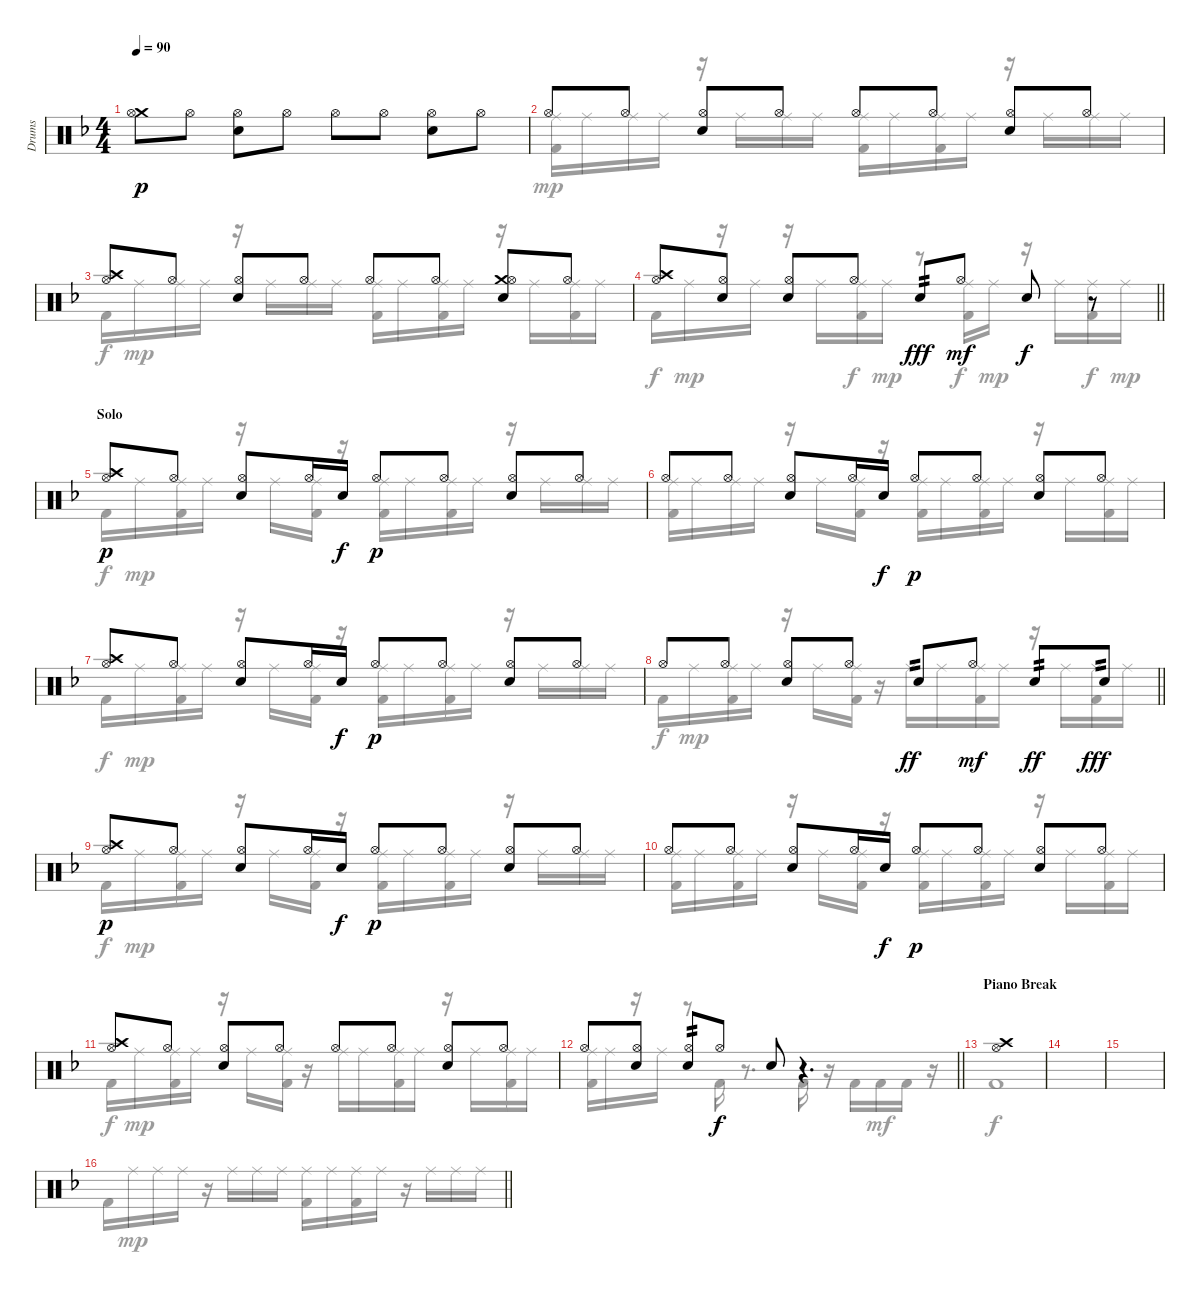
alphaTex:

\track ("Drums" "Drums") {instrument percussion}
\staff {score}
\articulation defaults
\voice
\ts (4 4)
\tempo 90
\clef neutral
\ks dminor
("Crash medium (hit)" "Hi-Hat (open)").8{dy p} "Hi-Hat (open)".8 ("Electric Snare (hit)" "Hi-Hat (open)").8 "Hi-Hat (open)".8 "Hi-Hat (open)".8 "Hi-Hat (open)".8 ("Electric Snare (hit)" "Hi-Hat (open)").8 "Hi-Hat (open)".8 |
"Hi-Hat (open)".8 "Hi-Hat (open)".8 ("Electric Snare (hit)" "Hi-Hat (open)").8 "Hi-Hat (open)".8 "Hi-Hat (open)".8 "Hi-Hat (open)".8 ("Electric Snare (hit)" "Hi-Hat (open)").8 "Hi-Hat (open)".8 |
("Crash high (hit)" "Hi-Hat (open)").8 "Hi-Hat (open)".8 ("Electric Snare (hit)" "Hi-Hat (open)").8 "Hi-Hat (open)".8 "Hi-Hat (open)".8 "Hi-Hat (open)".8 ("Crash medium (hit)" "Electric Snare (hit)" "Hi-Hat (open)").8 "Hi-Hat (open)".8 |
\barLineRight lightlight
("Crash high (hit)" "Hi-Hat (open)").8 ("Electric Snare (hit)" "Hi-Hat (open)").8 ("Electric Snare (hit)" "Hi-Hat (open)").8 "Hi-Hat (open)".8 "Electric Snare (hit)".8{tp 2 dy fff} "Hi-Hat (open)".8{dy mf} "Electric Snare (hit)".8{dy f} r.8 |
\section ("" "Solo")
("Crash high (hit)" "Hi-Hat (open)").8{dy p} "Hi-Hat (open)".8 ("Electric Snare (hit)" "Hi-Hat (open)").8 "Hi-Hat (open)".16 "Electric Snare (hit)".16{dy f} "Hi-Hat (open)".8{dy p} "Hi-Hat (open)".8 ("Electric Snare (hit)" "Hi-Hat (open)").8 "Hi-Hat (open)".8 |
"Hi-Hat (open)".8 "Hi-Hat (open)".8 ("Electric Snare (hit)" "Hi-Hat (open)").8 "Hi-Hat (open)".16 "Electric Snare (hit)".16{dy f} "Hi-Hat (open)".8{dy p} "Hi-Hat (open)".8 ("Electric Snare (hit)" "Hi-Hat (open)").8 "Hi-Hat (open)".8 |
("Crash high (hit)" "Hi-Hat (open)").8 "Hi-Hat (open)".8 ("Electric Snare (hit)" "Hi-Hat (open)").8 "Hi-Hat (open)".16 "Electric Snare (hit)".16{dy f} "Hi-Hat (open)".8{dy p} "Hi-Hat (open)".8 ("Electric Snare (hit)" "Hi-Hat (open)").8 "Hi-Hat (open)".8 |
\barLineRight lightlight "Hi-Hat (open)".8 "Hi-Hat (open)".8
("Electric Snare (hit)" "Hi-Hat (open)").8 "Hi-Hat (open)".8 "Electric Snare (hit)".8{tp 2 dy ff} "Hi-Hat (open)".8{dy mf} "Electric Snare (hit)".8{tp 2 dy ff} "Electric Snare (hit)".8{tp 2 dy fff} |
("Crash high (hit)" "Hi-Hat (open)").8{dy p} "Hi-Hat (open)".8 ("Electric Snare (hit)" "Hi-Hat (open)").8 "Hi-Hat (open)".16 "Electric Snare (hit)".16{dy f} "Hi-Hat (open)".8{dy p} "Hi-Hat (open)".8 ("Electric Snare (hit)" "Hi-Hat (open)").8 "Hi-Hat (open)".8 |
"Hi-Hat (open)".8 "Hi-Hat (open)".8 ("Electric Snare (hit)" "Hi-Hat (open)").8 "Hi-Hat (open)".16 "Electric Snare (hit)".16{dy f} "Hi-Hat (open)".8{dy p} "Hi-Hat (open)".8 ("Electric Snare (hit)" "Hi-Hat (open)").8 "Hi-Hat (open)".8 |
("Crash high (hit)" "Hi-Hat (open)").8 "Hi-Hat (open)".8 ("Electric Snare (hit)" "Hi-Hat (open)").8 "Hi-Hat (open)".8 "Hi-Hat (open)".8 "Hi-Hat (open)".8 ("Electric Snare (hit)" "Hi-Hat (open)").8 "Hi-Hat (open)".8 |
\barLineRight lightlight "Hi-Hat (open)".8
("Electric Snare (hit)" "Hi-Hat (open)").8 ("Electric Snare (hit)" "Hi-Hat (open)").8{tp 2} "Hi-Hat (open)".8{dy f} "Electric Snare (hit)".8 r.4{d} |
\section ("" "Piano Break")
("Crash high (hit)" "Hi-Hat (open)").1{bd 60} |
|
|
\barLineRight lightlight
\voice
\clef neutral
\ottava regular
\simile none
\ks dminor "Kick (hit) 2".16{dy f} "Ride (middle)".16{dy mp} "Ride (middle)".16 "Ride (middle)".16
r.16 "Ride (middle)".16 "Ride (middle)".16 "Ride (middle)".16 ("Ride (middle)" "Kick (hit) 2").16 "Ride (middle)".16 ("Ride (middle)" "Kick (hit) 2").16 "Ride (middle)".16 r.16 "Ride (middle)".16 "Ride (middle)".16 "Ride (middle)".16 |
("Ride (middle)" "Kick (hit) 2").16 "Ride (middle)".16 "Ride (middle)".16 "Ride (middle)".16 r.16 "Ride (middle)".16 "Ride (middle)".16 "Ride (middle)".16 ("Ride (middle)" "Kick (hit) 2").16 "Ride (middle)".16 ("Ride (middle)" "Kick (hit) 2").16 "Ride (middle)".16 r.16 "Ride (middle)".16 "Ride (middle)".16 "Ride (middle)".16 |
"Kick (hit) 2".16{dy f} "Ride (middle)".16{dy mp} "Ride (middle)".16 "Ride (middle)".16 r.16 "Ride (middle)".16 "Ride (middle)".16 "Ride (middle)".16 ("Ride (middle)" "Kick (hit) 2").16 "Ride (middle)".16 ("Ride (middle)" "Kick (hit) 2").16 "Ride (middle)".16 r.16 "Ride (middle)".16 ("Ride (middle)" "Kick (hit) 2").16 "Ride (middle)".16 |
\barLineRight lightlight "Kick (hit) 2".16{dy f} "Ride (middle)".16{dy mp}
r.16 "Ride (middle)".16 r.16 "Ride (middle)".16 ("Ride (middle)" "Kick (hit) 2").16{dy f} "Ride (middle)".16{dy mp} r.8 ("Ride (middle)" "Kick (hit) 2").16{dy f} "Ride (middle)".16{dy mp} r.16 "Ride (middle)".16 ("Ride (middle)" "Kick (hit) 2").16{dy f} "Ride (middle)".16{dy mp} |
"Kick (hit) 2".16{dy f} "Ride (middle)".16{dy mp} ("Ride (middle)" "Kick (hit) 2").16 "Ride (middle)".16 r.16 "Ride (middle)".16 ("Ride (middle)" "Kick (hit) 2").16 r.16 ("Ride (middle)" "Kick (hit) 2").16 "Ride (middle)".16 ("Ride (middle)" "Kick (hit) 2").16 "Ride (middle)".16 r.16 "Ride (middle)".16 "Ride (middle)".16 "Ride (middle)".16 |
("Ride (middle)" "Kick (hit) 2").16 "Ride (middle)".16 "Ride (middle)".16 "Ride (middle)".16 r.16 "Ride (middle)".16 ("Ride (middle)" "Kick (hit) 2").16 r.16 ("Ride (middle)" "Kick (hit) 2").16 "Ride (middle)".16 ("Ride (middle)" "Kick (hit) 2").16 "Ride (middle)".16 r.16 "Ride (middle)".16 ("Ride (middle)" "Kick (hit) 2").16 "Ride (middle)".16 |
"Kick (hit) 2".16{dy f} "Ride (middle)".16{dy mp} ("Ride (middle)" "Kick (hit) 2").16 "Ride (middle)".16 r.16 "Ride (middle)".16 ("Ride (middle)" "Kick (hit) 2").16 r.16 ("Ride (middle)" "Kick (hit) 2").16 "Ride (middle)".16 ("Ride (middle)" "Kick (hit) 2").16 "Ride (middle)".16 r.16 "Ride (middle)".16 "Ride (middle)".16 "Ride (middle)".16 |
\barLineRight lightlight "Kick (hit) 2".16{dy f} "Ride (middle)".16{dy mp}
("Ride (middle)" "Kick (hit) 2").16 "Ride (middle)".16 r.16 "Ride (middle)".16 ("Ride (middle)" "Kick (hit) 2").16 r.16 "Ride (middle)".16 "Ride (middle)".16 ("Ride (middle)" "Kick (hit) 2").16 "Ride (middle)".16 r.16 "Ride (middle)".16 ("Ride (middle)" "Kick (hit) 2").16 "Ride (middle)".16 |
"Kick (hit) 2".16{dy f} "Ride (middle)".16{dy mp} ("Ride (middle)" "Kick (hit) 2").16 "Ride (middle)".16 r.16 "Ride (middle)".16 ("Ride (middle)" "Kick (hit) 2").16 r.16 ("Ride (middle)" "Kick (hit) 2").16 "Ride (middle)".16 ("Ride (middle)" "Kick (hit) 2").16 "Ride (middle)".16 r.16 "Ride (middle)".16 "Ride (middle)".16 "Ride (middle)".16 |
("Ride (middle)" "Kick (hit) 2").16 "Ride (middle)".16 ("Ride (middle)" "Kick (hit) 2").16 "Ride (middle)".16 r.16 "Ride (middle)".16 ("Ride (middle)" "Kick (hit) 2").16 r.16 ("Ride (middle)" "Kick (hit) 2").16 "Ride (middle)".16 ("Ride (middle)" "Kick (hit) 2").16 "Ride (middle)".16 r.16 "Ride (middle)".16 ("Ride (middle)" "Kick (hit) 2").16 "Ride (middle)".16 |
"Kick (hit) 2".16{dy f} "Ride (middle)".16{dy mp} ("Ride (middle)" "Kick (hit) 2").16 "Ride (middle)".16 r.16 "Ride (middle)".16 ("Ride (middle)" "Kick (hit) 2").16 r.16 "Ride (middle)".16 "Ride (middle)".16 ("Ride (middle)" "Kick (hit) 2").16 "Ride (middle)".16 r.16 "Ride (middle)".16 ("Ride (middle)" "Kick (hit) 2").16 "Ride (middle)".16 |
\barLineRight lightlight
("Ride (middle)" "Kick (hit) 2").16 "Ride (middle)".16 r.16 "Ride (middle)".16 r.8 "Kick (hit) 2".16{dy f} r.8{d} "Kick (hit) 2".16 r.16 "Kick (hit) 2".16 "Kick (hit) 2".16{dy mf} "Kick (hit) 2".16 r.16 |
"Kick (hit) 2".1{dy f} |
|
|
\barLineRight lightlight
